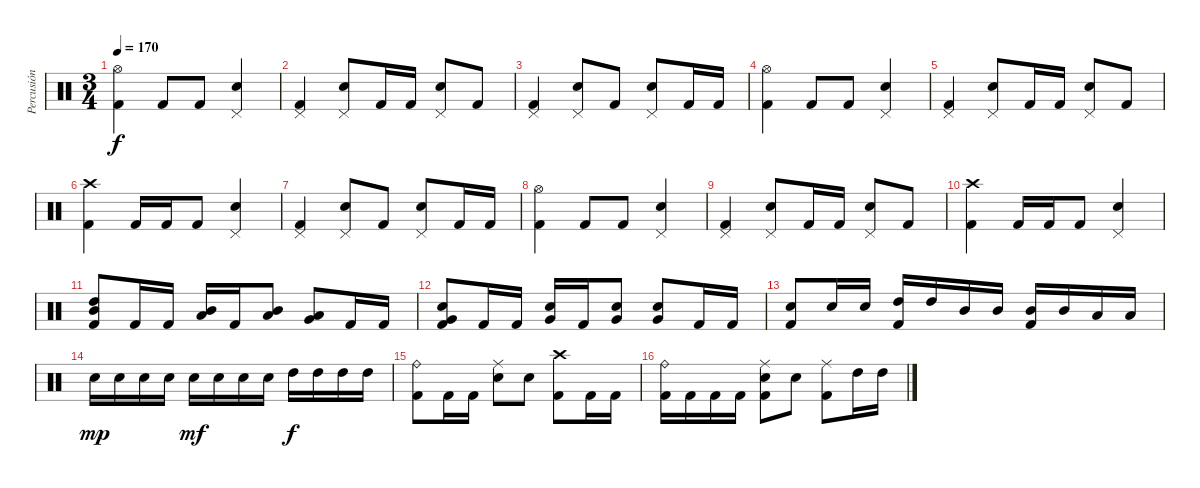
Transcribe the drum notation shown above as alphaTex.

\track ("Percusión" "Percusión") {instrument percussion}
\staff {score}
\articulation defaults
\ts (3 4)
\tempo 170
\clef neutral
\ks c
("Hi-Hat (open)" "Kick (hit) 2").4{dy f} "Kick (hit) 2".8 "Kick (hit) 2".8 ("Pedal Hi-Hat (hit)" "Snare (hit) 2").4 |
("Pedal Hi-Hat (hit)" "Kick (hit) 2").4 ("Pedal Hi-Hat (hit)" "Snare (hit) 2").8 "Kick (hit) 2".16 "Kick (hit) 2".16 ("Pedal Hi-Hat (hit)" "Snare (hit) 2").8 "Kick (hit) 2".8 |
("Pedal Hi-Hat (hit)" "Kick (hit) 2").4 ("Pedal Hi-Hat (hit)" "Snare (hit) 2").8 "Kick (hit) 2".8 ("Pedal Hi-Hat (hit)" "Snare (hit) 2").8 "Kick (hit) 2".16 "Kick (hit) 2".16 |
("Hi-Hat (open)" "Kick (hit) 2").4 "Kick (hit) 2".8 "Kick (hit) 2".8 ("Pedal Hi-Hat (hit)" "Snare (hit) 2").4 |
("Pedal Hi-Hat (hit)" "Kick (hit) 2").4 ("Pedal Hi-Hat (hit)" "Snare (hit) 2").8 "Kick (hit) 2".16 "Kick (hit) 2".16 ("Pedal Hi-Hat (hit)" "Snare (hit) 2").8 "Kick (hit) 2".8 |
("Crash high (hit)" "Kick (hit) 2").4 "Kick (hit) 2".16 "Kick (hit) 2".16 "Kick (hit) 2".8 ("Pedal Hi-Hat (hit)" "Snare (hit) 2").4 |
("Pedal Hi-Hat (hit)" "Kick (hit) 2").4 ("Pedal Hi-Hat (hit)" "Snare (hit) 2").8 "Kick (hit) 2".8 ("Pedal Hi-Hat (hit)" "Snare (hit) 2").8 "Kick (hit) 2".16 "Kick (hit) 2".16 |
("Hi-Hat (open)" "Kick (hit) 2").4 "Kick (hit) 2".8 "Kick (hit) 2".8 ("Pedal Hi-Hat (hit)" "Snare (hit) 2").4 |
("Pedal Hi-Hat (hit)" "Kick (hit) 2").4 ("Pedal Hi-Hat (hit)" "Snare (hit) 2").8 "Kick (hit) 2".16 "Kick (hit) 2".16 ("Pedal Hi-Hat (hit)" "Snare (hit) 2").8 "Kick (hit) 2".8 |
("Crash high (hit)" "Kick (hit) 2").4 "Kick (hit) 2".16 "Kick (hit) 2".16 "Kick (hit) 2".8 ("Pedal Hi-Hat (hit)" "Snare (hit) 2").4 |
("High Tom (hit)" "Mid Tom (hit)" "Kick (hit) 2").8 "Kick (hit) 2".16 "Kick (hit) 2".16 ("Mid Tom (hit)" "Low Tom (hit)").16 "Kick (hit) 2".16 ("Mid Tom (hit)" "Low Tom (hit)").8 ("Low Tom (hit)" "Very Low Tom (hit)").8 "Kick (hit) 2".16 "Kick (hit) 2".16 |
("Snare (hit) 2" "Very Low Tom (hit)" "Kick (hit) 2").8 "Kick (hit) 2".16 "Kick (hit) 2".16 ("Snare (hit) 2" "Very Low Tom (hit)").16 "Kick (hit) 2".16 ("Snare (hit) 2" "Very Low Tom (hit)").8 ("Snare (hit) 2" "Very Low Tom (hit)").8 "Kick (hit) 2".16 "Kick (hit) 2".16 |
("Snare (hit) 2" "Kick (hit) 2").8 "Snare (hit) 2".16 "Snare (hit) 2".16 ("High Tom (hit)" "Kick (hit) 2").16 "High Tom (hit)".16 "Mid Tom (hit)".16 "Mid Tom (hit)".16 ("Mid Tom (hit)" "Kick (hit) 2").16 "Mid Tom (hit)".16 "Low Tom (hit)".16 "Low Tom (hit)".16 |
"Snare (hit) 2".16{dy mp} "Snare (hit) 2".16 "Snare (hit) 2".16 "Snare (hit) 2".16 "Snare (hit) 2".16{dy mf} "Snare (hit) 2".16 "Snare (hit) 2".16 "Snare (hit) 2".16 "High Tom (hit)".16{dy f} "High Tom (hit)".16 "High Tom (hit)".16 "High Tom (hit)".16 |
("Ride (bell)" "Kick (hit) 2").8 "Kick (hit) 2".16 "Kick (hit) 2".16 ("Ride (middle)" "Snare (hit) 2").8 "Snare (hit) 2".8 ("Crash high (hit)" "Kick (hit) 2").8 "Kick (hit) 2".16 "Kick (hit) 2".16 |
("Ride (bell)" "Kick (hit) 2").16 "Kick (hit) 2".16 "Kick (hit) 2".16 "Kick (hit) 2".16 ("Ride (middle)" "Snare (hit) 2" "Kick (hit) 2").8 "Snare (hit) 2".8 ("Ride (middle)" "Kick (hit) 2").8 "High Tom (hit)".16 "High Tom (hit)".16
